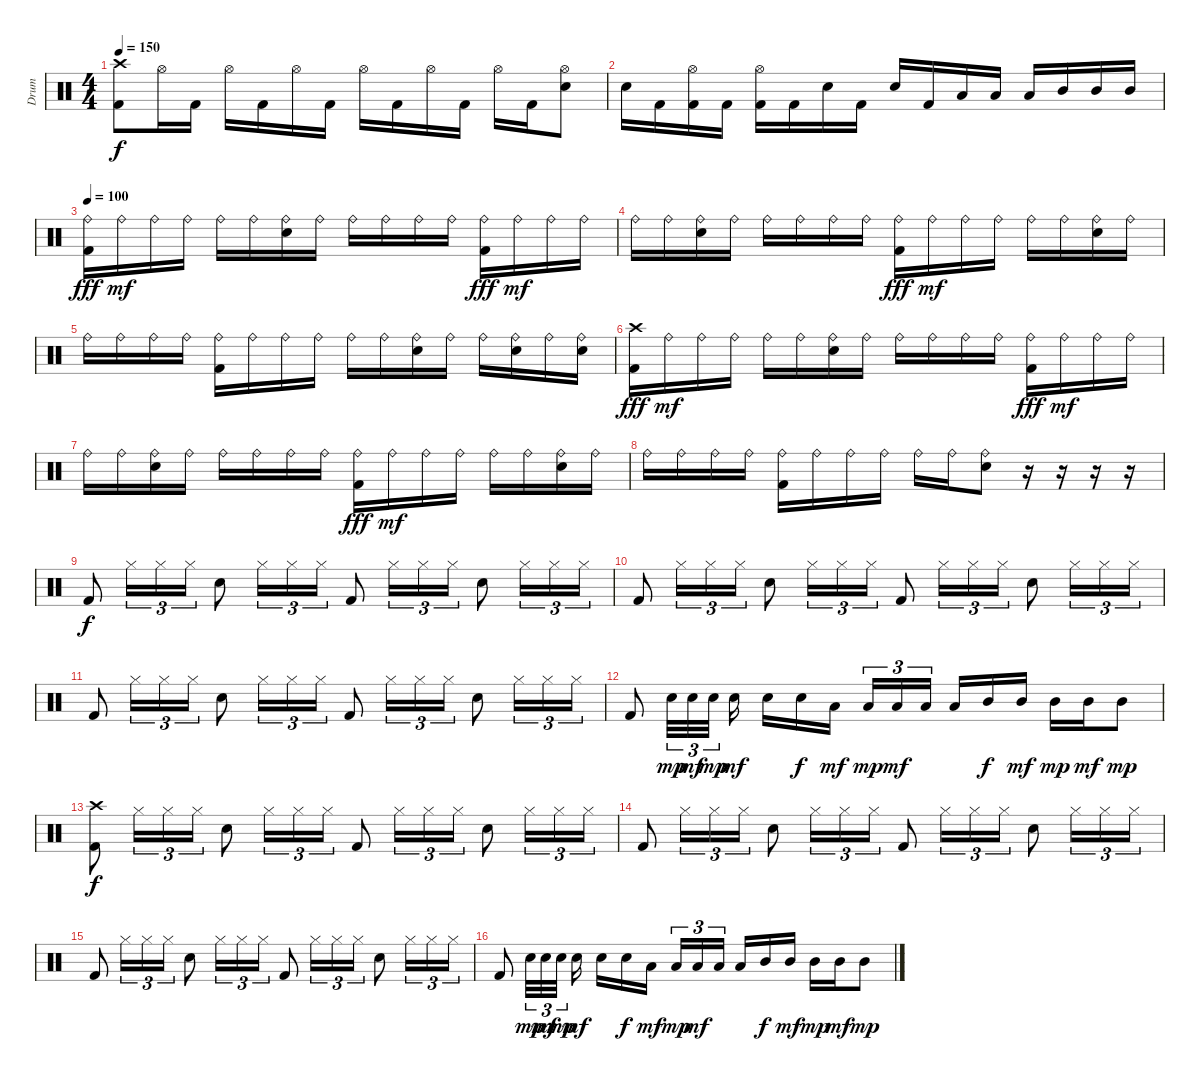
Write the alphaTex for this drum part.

\track ("Drum" "Drum") {instrument percussion}
\staff {score}
\articulation defaults
\ts (4 4)
\tempo 150
\clef neutral
\ks c
("Crash high (hit)" "Kick (hit) 2").8{dy f} "Hi-Hat (open)".16 "Kick (hit) 2".16 "Hi-Hat (open)".16 "Kick (hit) 2".16 "Hi-Hat (open)".16 "Kick (hit) 2".16 "Hi-Hat (open)".16 "Kick (hit) 2".16 "Hi-Hat (open)".16 "Kick (hit) 2".16 "Hi-Hat (open)".16 "Kick (hit) 2".16 ("Electric Snare (hit)" "Hi-Hat (open)").8 |
"Electric Snare (hit)".16 "Kick (hit) 2".16 ("Hi-Hat (open)" "Kick (hit) 2").16 "Kick (hit) 2".16 ("Hi-Hat (open)" "Kick (hit) 2").16 "Kick (hit) 2".16 "Electric Snare (hit)".16 "Kick (hit) 2".16 "Electric Snare (hit)".16 "Kick (hit) 2".16 "Low Tom (hit)".16 "Low Tom (hit)".16 "Low Tom (hit)".16 "Mid Tom (hit)".16 "Mid Tom (hit)".16 "Mid Tom (hit)".16 |
\tempo 100
("Ride (bell)" "Kick (hit) 2").16{dy fff} "Ride (bell)".16{dy mf} "Ride (bell)".16 "Ride (bell)".16 "Ride (bell)".16 "Ride (bell)".16 ("Ride (bell)" "Electric Snare (hit)").16 "Ride (bell)".16 "Ride (bell)".16 "Ride (bell)".16 "Ride (bell)".16 "Ride (bell)".16 ("Ride (bell)" "Kick (hit) 2").16{dy fff} "Ride (bell)".16{dy mf} "Ride (bell)".16 "Ride (bell)".16 |
"Ride (bell)".16 "Ride (bell)".16 ("Ride (bell)" "Electric Snare (hit)").16 "Ride (bell)".16 "Ride (bell)".16 "Ride (bell)".16 "Ride (bell)".16 "Ride (bell)".16 ("Ride (bell)" "Kick (hit) 2").16{dy fff} "Ride (bell)".16{dy mf} "Ride (bell)".16 "Ride (bell)".16 "Ride (bell)".16 "Ride (bell)".16 ("Ride (bell)" "Electric Snare (hit)").16 "Ride (bell)".16 |
"Ride (bell)".16 "Ride (bell)".16 "Ride (bell)".16 "Ride (bell)".16 ("Ride (bell)" "Kick (hit) 2").16 "Ride (bell)".16 "Ride (bell)".16 "Ride (bell)".16 "Ride (bell)".16 "Ride (bell)".16 ("Ride (bell)" "Electric Snare (hit)").16 "Ride (bell)".16 "Ride (bell)".16 ("Ride (bell)" "Electric Snare (hit)").16 "Ride (bell)".16 ("Ride (bell)" "Electric Snare (hit)").16 |
("Crash high (hit)" "Kick (hit) 2").16{dy fff} "Ride (bell)".16{dy mf} "Ride (bell)".16 "Ride (bell)".16 "Ride (bell)".16 "Ride (bell)".16 ("Ride (bell)" "Electric Snare (hit)").16 "Ride (bell)".16 "Ride (bell)".16 "Ride (bell)".16 "Ride (bell)".16 "Ride (bell)".16 ("Ride (bell)" "Kick (hit) 2").16{dy fff} "Ride (bell)".16{dy mf} "Ride (bell)".16 "Ride (bell)".16 |
"Ride (bell)".16 "Ride (bell)".16 ("Ride (bell)" "Electric Snare (hit)").16 "Ride (bell)".16 "Ride (bell)".16 "Ride (bell)".16 "Ride (bell)".16 "Ride (bell)".16 ("Ride (bell)" "Kick (hit) 2").16{dy fff} "Ride (bell)".16{dy mf} "Ride (bell)".16 "Ride (bell)".16 "Ride (bell)".16 "Ride (bell)".16 ("Ride (bell)" "Electric Snare (hit)").16 "Ride (bell)".16 |
"Ride (bell)".16 "Ride (bell)".16 "Ride (bell)".16 "Ride (bell)".16 ("Ride (bell)" "Kick (hit) 2").16 "Ride (bell)".16 "Ride (bell)".16 "Ride (bell)".16 "Ride (bell)".16 "Ride (bell)".16 ("Ride (bell)" "Electric Snare (hit)").8 r.16 r.16 r.16 r.16 |
"Kick (hit) 2".8{dy f} "Hi-Hat (closed)".16{tu (3 2)} "Hi-Hat (closed)".16{tu (3 2)} "Hi-Hat (closed)".16{tu (3 2)} "Electric Snare (hit)".8 "Hi-Hat (closed)".16{tu (3 2)} "Hi-Hat (closed)".16{tu (3 2)} "Hi-Hat (closed)".16{tu (3 2)} "Kick (hit) 2".8 "Hi-Hat (closed)".16{tu (3 2)} "Hi-Hat (closed)".16{tu (3 2)} "Hi-Hat (closed)".16{tu (3 2)} "Electric Snare (hit)".8 "Hi-Hat (closed)".16{tu (3 2)} "Hi-Hat (closed)".16{tu (3 2)} "Hi-Hat (closed)".16{tu (3 2)} |
"Kick (hit) 2".8 "Hi-Hat (closed)".16{tu (3 2)} "Hi-Hat (closed)".16{tu (3 2)} "Hi-Hat (closed)".16{tu (3 2)} "Electric Snare (hit)".8 "Hi-Hat (closed)".16{tu (3 2)} "Hi-Hat (closed)".16{tu (3 2)} "Hi-Hat (closed)".16{tu (3 2)} "Kick (hit) 2".8 "Hi-Hat (closed)".16{tu (3 2)} "Hi-Hat (closed)".16{tu (3 2)} "Hi-Hat (closed)".16{tu (3 2)} "Electric Snare (hit)".8 "Hi-Hat (closed)".16{tu (3 2)} "Hi-Hat (closed)".16{tu (3 2)} "Hi-Hat (closed)".16{tu (3 2)} |
"Kick (hit) 2".8 "Hi-Hat (closed)".16{tu (3 2)} "Hi-Hat (closed)".16{tu (3 2)} "Hi-Hat (closed)".16{tu (3 2)} "Electric Snare (hit)".8 "Hi-Hat (closed)".16{tu (3 2)} "Hi-Hat (closed)".16{tu (3 2)} "Hi-Hat (closed)".16{tu (3 2)} "Kick (hit) 2".8 "Hi-Hat (closed)".16{tu (3 2)} "Hi-Hat (closed)".16{tu (3 2)} "Hi-Hat (closed)".16{tu (3 2)} "Electric Snare (hit)".8 "Hi-Hat (closed)".16{tu (3 2)} "Hi-Hat (closed)".16{tu (3 2)} "Hi-Hat (closed)".16{tu (3 2)} |
"Kick (hit) 2".8 "Electric Snare (hit)".32{tu (3 2) dy mp} "Electric Snare (hit)".32{tu (3 2) dy mf} "Electric Snare (hit)".32{tu (3 2) dy mp} "Electric Snare (hit)".16{dy mf} "Electric Snare (hit)".16 "Electric Snare (hit)".16{dy f} "Low Tom (hit)".16{dy mf} "Low Tom (hit)".16{tu (3 2) dy mp} "Low Tom (hit)".16{tu (3 2) dy mf} "Low Tom (hit)".16{tu (3 2)} "Low Tom (hit)".16 "Mid Tom (hit)".16{dy f} "Mid Tom (hit)".16{dy mf} "Mid Tom (hit)".16{dy mp} "Mid Tom (hit)".16{dy mf} "Mid Tom (hit)".8{dy mp} |
("Crash high (hit)" "Kick (hit) 2").8{dy f} "Hi-Hat (closed)".16{tu (3 2)} "Hi-Hat (closed)".16{tu (3 2)} "Hi-Hat (closed)".16{tu (3 2)} "Electric Snare (hit)".8 "Hi-Hat (closed)".16{tu (3 2)} "Hi-Hat (closed)".16{tu (3 2)} "Hi-Hat (closed)".16{tu (3 2)} "Kick (hit) 2".8 "Hi-Hat (closed)".16{tu (3 2)} "Hi-Hat (closed)".16{tu (3 2)} "Hi-Hat (closed)".16{tu (3 2)} "Electric Snare (hit)".8 "Hi-Hat (closed)".16{tu (3 2)} "Hi-Hat (closed)".16{tu (3 2)} "Hi-Hat (closed)".16{tu (3 2)} |
"Kick (hit) 2".8 "Hi-Hat (closed)".16{tu (3 2)} "Hi-Hat (closed)".16{tu (3 2)} "Hi-Hat (closed)".16{tu (3 2)} "Electric Snare (hit)".8 "Hi-Hat (closed)".16{tu (3 2)} "Hi-Hat (closed)".16{tu (3 2)} "Hi-Hat (closed)".16{tu (3 2)} "Kick (hit) 2".8 "Hi-Hat (closed)".16{tu (3 2)} "Hi-Hat (closed)".16{tu (3 2)} "Hi-Hat (closed)".16{tu (3 2)} "Electric Snare (hit)".8 "Hi-Hat (closed)".16{tu (3 2)} "Hi-Hat (closed)".16{tu (3 2)} "Hi-Hat (closed)".16{tu (3 2)} |
"Kick (hit) 2".8 "Hi-Hat (closed)".16{tu (3 2)} "Hi-Hat (closed)".16{tu (3 2)} "Hi-Hat (closed)".16{tu (3 2)} "Electric Snare (hit)".8 "Hi-Hat (closed)".16{tu (3 2)} "Hi-Hat (closed)".16{tu (3 2)} "Hi-Hat (closed)".16{tu (3 2)} "Kick (hit) 2".8 "Hi-Hat (closed)".16{tu (3 2)} "Hi-Hat (closed)".16{tu (3 2)} "Hi-Hat (closed)".16{tu (3 2)} "Electric Snare (hit)".8 "Hi-Hat (closed)".16{tu (3 2)} "Hi-Hat (closed)".16{tu (3 2)} "Hi-Hat (closed)".16{tu (3 2)} |
"Kick (hit) 2".8 "Electric Snare (hit)".32{tu (3 2) dy mp} "Electric Snare (hit)".32{tu (3 2) dy mf} "Electric Snare (hit)".32{tu (3 2) dy mp} "Electric Snare (hit)".16{dy mf} "Electric Snare (hit)".16 "Electric Snare (hit)".16{dy f} "Low Tom (hit)".16{dy mf} "Low Tom (hit)".16{tu (3 2) dy mp} "Low Tom (hit)".16{tu (3 2) dy mf} "Low Tom (hit)".16{tu (3 2)} "Low Tom (hit)".16 "Mid Tom (hit)".16{dy f} "Mid Tom (hit)".16{dy mf} "Mid Tom (hit)".16{dy mp} "Mid Tom (hit)".16{dy mf} "Mid Tom (hit)".8{dy mp}
